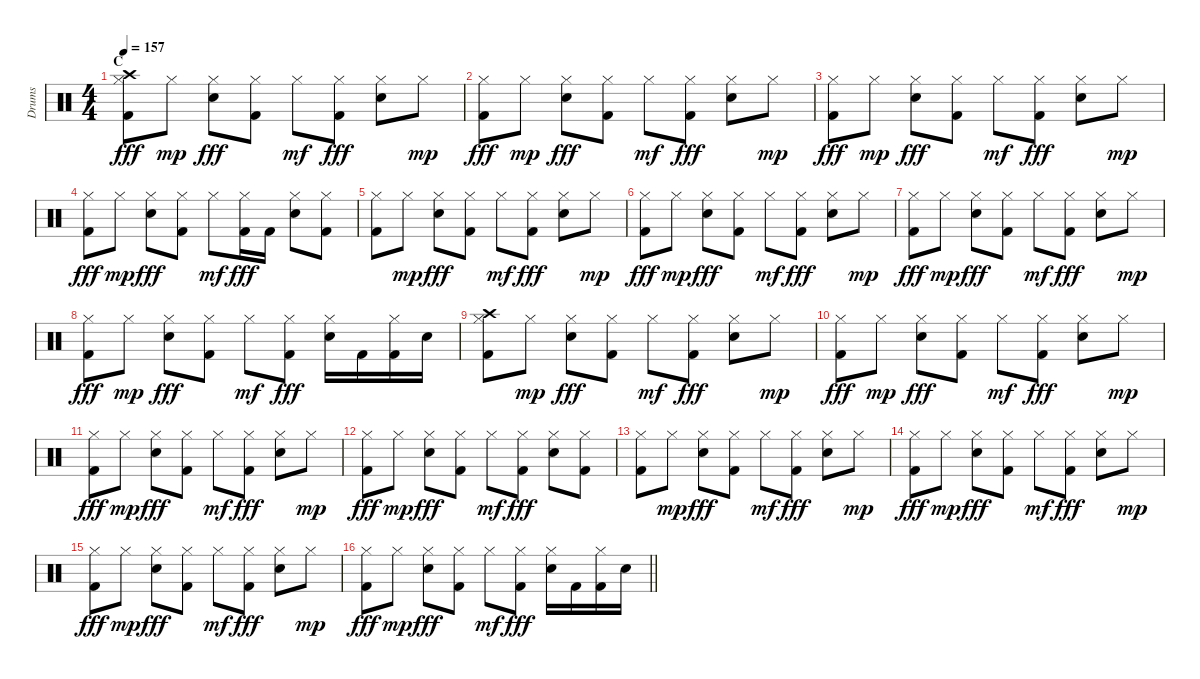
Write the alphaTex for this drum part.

\track ("Drums" "Drums") {instrument percussion}
\staff
\articulation defaults
\ts (4 4)
\section ("" "C")
\tempo 157
\clef neutral
\ks c
("Hi-Hat (closed)" "Crash high (hit)" "Kick (hit) 2").8{dy fff} "Hi-Hat (closed)".8{dy mp} ("Hi-Hat (closed)" "Electric Snare (hit)").8{dy fff} ("Hi-Hat (closed)" "Kick (hit) 2").8 "Hi-Hat (closed)".8{dy mf} ("Hi-Hat (closed)" "Kick (hit) 2").8{dy fff} ("Hi-Hat (closed)" "Electric Snare (hit)").8 "Hi-Hat (closed)".8{dy mp} |
("Hi-Hat (closed)" "Kick (hit) 2").8{dy fff} "Hi-Hat (closed)".8{dy mp} ("Hi-Hat (closed)" "Electric Snare (hit)").8{dy fff} ("Hi-Hat (closed)" "Kick (hit) 2").8 "Hi-Hat (closed)".8{dy mf} ("Hi-Hat (closed)" "Kick (hit) 2").8{dy fff} ("Hi-Hat (closed)" "Electric Snare (hit)").8 "Hi-Hat (closed)".8{dy mp} |
("Hi-Hat (closed)" "Kick (hit) 2").8{dy fff} "Hi-Hat (closed)".8{dy mp} ("Hi-Hat (closed)" "Electric Snare (hit)").8{dy fff} ("Hi-Hat (closed)" "Kick (hit) 2").8 "Hi-Hat (closed)".8{dy mf} ("Hi-Hat (closed)" "Kick (hit) 2").8{dy fff} ("Hi-Hat (closed)" "Electric Snare (hit)").8 "Hi-Hat (closed)".8{dy mp} |
("Hi-Hat (closed)" "Kick (hit) 2").8{dy fff} "Hi-Hat (closed)".8{dy mp} ("Hi-Hat (closed)" "Electric Snare (hit)").8{dy fff} ("Hi-Hat (closed)" "Kick (hit) 2").8 "Hi-Hat (closed)".8{dy mf} ("Hi-Hat (closed)" "Kick (hit) 2").16{dy fff} "Kick (hit) 2".16 ("Hi-Hat (closed)" "Electric Snare (hit)").8 ("Hi-Hat (closed)" "Kick (hit) 2").8 |
("Hi-Hat (closed)" "Kick (hit) 2").8 "Hi-Hat (closed)".8{dy mp} ("Hi-Hat (closed)" "Electric Snare (hit)").8{dy fff} ("Hi-Hat (closed)" "Kick (hit) 2").8 "Hi-Hat (closed)".8{dy mf} ("Hi-Hat (closed)" "Kick (hit) 2").8{dy fff} ("Hi-Hat (closed)" "Electric Snare (hit)").8 "Hi-Hat (closed)".8{dy mp} |
("Hi-Hat (closed)" "Kick (hit) 2").8{dy fff} "Hi-Hat (closed)".8{dy mp} ("Hi-Hat (closed)" "Electric Snare (hit)").8{dy fff} ("Hi-Hat (closed)" "Kick (hit) 2").8 "Hi-Hat (closed)".8{dy mf} ("Hi-Hat (closed)" "Kick (hit) 2").8{dy fff} ("Hi-Hat (closed)" "Electric Snare (hit)").8 "Hi-Hat (closed)".8{dy mp} |
("Hi-Hat (closed)" "Kick (hit) 2").8{dy fff} "Hi-Hat (closed)".8{dy mp} ("Hi-Hat (closed)" "Electric Snare (hit)").8{dy fff} ("Hi-Hat (closed)" "Kick (hit) 2").8 "Hi-Hat (closed)".8{dy mf} ("Hi-Hat (closed)" "Kick (hit) 2").8{dy fff} ("Hi-Hat (closed)" "Electric Snare (hit)").8 "Hi-Hat (closed)".8{dy mp} |
("Hi-Hat (closed)" "Kick (hit) 2").8{dy fff} "Hi-Hat (closed)".8{dy mp} ("Hi-Hat (closed)" "Electric Snare (hit)").8{dy fff} ("Hi-Hat (closed)" "Kick (hit) 2").8 "Hi-Hat (closed)".8{dy mf} ("Hi-Hat (closed)" "Kick (hit) 2").8{dy fff} ("Hi-Hat (closed)" "Electric Snare (hit)").16 "Kick (hit) 2".16 ("Hi-Hat (closed)" "Kick (hit) 2").16 "Electric Snare (hit)".16 |
("Hi-Hat (closed)" "Crash high (hit)" "Kick (hit) 2").8 "Hi-Hat (closed)".8{dy mp} ("Hi-Hat (closed)" "Electric Snare (hit)").8{dy fff} ("Hi-Hat (closed)" "Kick (hit) 2").8 "Hi-Hat (closed)".8{dy mf} ("Hi-Hat (closed)" "Kick (hit) 2").8{dy fff} ("Hi-Hat (closed)" "Electric Snare (hit)").8 "Hi-Hat (closed)".8{dy mp} |
("Hi-Hat (closed)" "Kick (hit) 2").8{dy fff} "Hi-Hat (closed)".8{dy mp} ("Hi-Hat (closed)" "Electric Snare (hit)").8{dy fff} ("Hi-Hat (closed)" "Kick (hit) 2").8 "Hi-Hat (closed)".8{dy mf} ("Hi-Hat (closed)" "Kick (hit) 2").8{dy fff} ("Hi-Hat (closed)" "Electric Snare (hit)").8 "Hi-Hat (closed)".8{dy mp} |
("Hi-Hat (closed)" "Kick (hit) 2").8{dy fff} "Hi-Hat (closed)".8{dy mp} ("Hi-Hat (closed)" "Electric Snare (hit)").8{dy fff} ("Hi-Hat (closed)" "Kick (hit) 2").8 "Hi-Hat (closed)".8{dy mf} ("Hi-Hat (closed)" "Kick (hit) 2").8{dy fff} ("Hi-Hat (closed)" "Electric Snare (hit)").8 "Hi-Hat (closed)".8{dy mp} |
("Hi-Hat (closed)" "Kick (hit) 2").8{dy fff} "Hi-Hat (closed)".8{dy mp} ("Hi-Hat (closed)" "Electric Snare (hit)").8{dy fff} ("Hi-Hat (closed)" "Kick (hit) 2").8 "Hi-Hat (closed)".8{dy mf} ("Hi-Hat (closed)" "Kick (hit) 2").8{dy fff} ("Hi-Hat (closed)" "Electric Snare (hit)").8 ("Hi-Hat (closed)" "Kick (hit) 2").8 |
("Hi-Hat (closed)" "Kick (hit) 2").8 "Hi-Hat (closed)".8{dy mp} ("Hi-Hat (closed)" "Electric Snare (hit)").8{dy fff} ("Hi-Hat (closed)" "Kick (hit) 2").8 "Hi-Hat (closed)".8{dy mf} ("Hi-Hat (closed)" "Kick (hit) 2").8{dy fff} ("Hi-Hat (closed)" "Electric Snare (hit)").8 "Hi-Hat (closed)".8{dy mp} |
("Hi-Hat (closed)" "Kick (hit) 2").8{dy fff} "Hi-Hat (closed)".8{dy mp} ("Hi-Hat (closed)" "Electric Snare (hit)").8{dy fff} ("Hi-Hat (closed)" "Kick (hit) 2").8 "Hi-Hat (closed)".8{dy mf} ("Hi-Hat (closed)" "Kick (hit) 2").8{dy fff} ("Hi-Hat (closed)" "Electric Snare (hit)").8 "Hi-Hat (closed)".8{dy mp} |
("Hi-Hat (closed)" "Kick (hit) 2").8{dy fff} "Hi-Hat (closed)".8{dy mp} ("Hi-Hat (closed)" "Electric Snare (hit)").8{dy fff} ("Hi-Hat (closed)" "Kick (hit) 2").8 "Hi-Hat (closed)".8{dy mf} ("Hi-Hat (closed)" "Kick (hit) 2").8{dy fff} ("Hi-Hat (closed)" "Electric Snare (hit)").8 "Hi-Hat (closed)".8{dy mp} |
\barLineRight lightlight
("Hi-Hat (closed)" "Kick (hit) 2").8{dy fff} "Hi-Hat (closed)".8{dy mp} ("Hi-Hat (closed)" "Electric Snare (hit)").8{dy fff} ("Hi-Hat (closed)" "Kick (hit) 2").8 "Hi-Hat (closed)".8{dy mf} ("Hi-Hat (closed)" "Kick (hit) 2").8{dy fff} ("Hi-Hat (closed)" "Electric Snare (hit)").16 "Kick (hit) 2".16 ("Hi-Hat (closed)" "Kick (hit) 2").16 "Electric Snare (hit)".16
